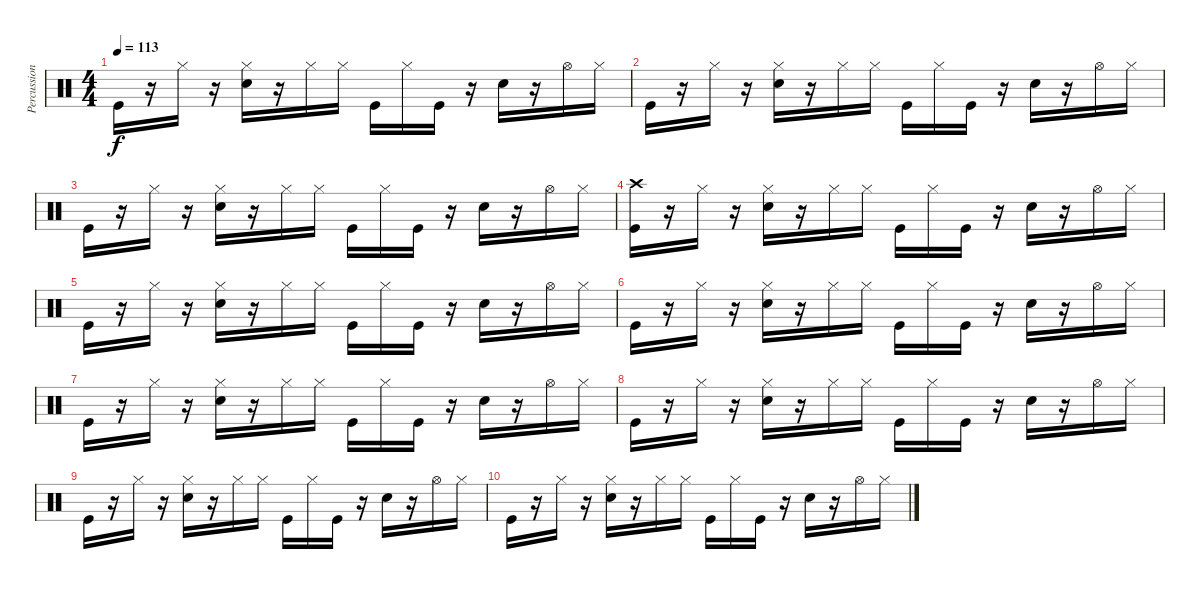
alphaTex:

\track ("Percussioni" "Percussion") {instrument percussion}
\staff {score}
\articulation defaults
\ts (4 4)
\tempo 113
\clef neutral
\ks c "Kick (hit)".16{dy f}
r.16 "Hi-Hat (closed)".16 r.16 ("Hi-Hat (closed)" "Electric Snare (hit)").16 r.16 "Hi-Hat (closed)".16 "Hi-Hat (closed)".16 "Kick (hit)".16 "Hi-Hat (closed)".16 "Kick (hit)".16 r.16 "Electric Snare (hit)".16 r.16 "Hi-Hat (open)".16 "Hi-Hat (closed)".16 |
"Kick (hit)".16 r.16 "Hi-Hat (closed)".16 r.16 ("Hi-Hat (closed)" "Electric Snare (hit)").16 r.16 "Hi-Hat (closed)".16 "Hi-Hat (closed)".16 "Kick (hit)".16 "Hi-Hat (closed)".16 "Kick (hit)".16 r.16 "Electric Snare (hit)".16 r.16 "Hi-Hat (open)".16 "Hi-Hat (closed)".16 |
"Kick (hit)".16 r.16 "Hi-Hat (closed)".16 r.16 ("Hi-Hat (closed)" "Electric Snare (hit)").16 r.16 "Hi-Hat (closed)".16 "Hi-Hat (closed)".16 "Kick (hit)".16 "Hi-Hat (closed)".16 "Kick (hit)".16 r.16 "Electric Snare (hit)".16 r.16 "Hi-Hat (open)".16 "Hi-Hat (closed)".16 |
("Crash high (hit)" "Kick (hit)").16 r.16 "Hi-Hat (closed)".16 r.16 ("Hi-Hat (closed)" "Electric Snare (hit)").16 r.16 "Hi-Hat (closed)".16 "Hi-Hat (closed)".16 "Kick (hit)".16 "Hi-Hat (closed)".16 "Kick (hit)".16 r.16 "Electric Snare (hit)".16 r.16 "Hi-Hat (open)".16 "Hi-Hat (closed)".16 |
"Kick (hit)".16 r.16 "Hi-Hat (closed)".16 r.16 ("Hi-Hat (closed)" "Electric Snare (hit)").16 r.16 "Hi-Hat (closed)".16 "Hi-Hat (closed)".16 "Kick (hit)".16 "Hi-Hat (closed)".16 "Kick (hit)".16 r.16 "Electric Snare (hit)".16 r.16 "Hi-Hat (open)".16 "Hi-Hat (closed)".16 |
"Kick (hit)".16 r.16 "Hi-Hat (closed)".16 r.16 ("Hi-Hat (closed)" "Electric Snare (hit)").16 r.16 "Hi-Hat (closed)".16 "Hi-Hat (closed)".16 "Kick (hit)".16 "Hi-Hat (closed)".16 "Kick (hit)".16 r.16 "Electric Snare (hit)".16 r.16 "Hi-Hat (open)".16 "Hi-Hat (closed)".16 |
"Kick (hit)".16 r.16 "Hi-Hat (closed)".16 r.16 ("Hi-Hat (closed)" "Electric Snare (hit)").16 r.16 "Hi-Hat (closed)".16 "Hi-Hat (closed)".16 "Kick (hit)".16 "Hi-Hat (closed)".16 "Kick (hit)".16 r.16 "Electric Snare (hit)".16 r.16 "Hi-Hat (open)".16 "Hi-Hat (closed)".16 |
"Kick (hit)".16 r.16 "Hi-Hat (closed)".16 r.16 ("Hi-Hat (closed)" "Electric Snare (hit)").16 r.16 "Hi-Hat (closed)".16 "Hi-Hat (closed)".16 "Kick (hit)".16 "Hi-Hat (closed)".16 "Kick (hit)".16 r.16 "Electric Snare (hit)".16 r.16 "Hi-Hat (open)".16 "Hi-Hat (closed)".16 |
"Kick (hit)".16 r.16 "Hi-Hat (closed)".16 r.16 ("Hi-Hat (closed)" "Electric Snare (hit)").16 r.16 "Hi-Hat (closed)".16 "Hi-Hat (closed)".16 "Kick (hit)".16 "Hi-Hat (closed)".16 "Kick (hit)".16 r.16 "Electric Snare (hit)".16 r.16 "Hi-Hat (open)".16 "Hi-Hat (closed)".16 |
"Kick (hit)".16 r.16 "Hi-Hat (closed)".16 r.16 ("Hi-Hat (closed)" "Electric Snare (hit)").16 r.16 "Hi-Hat (closed)".16 "Hi-Hat (closed)".16 "Kick (hit)".16 "Hi-Hat (closed)".16 "Kick (hit)".16 r.16 "Electric Snare (hit)".16 r.16 "Hi-Hat (open)".16 "Hi-Hat (closed)".16
